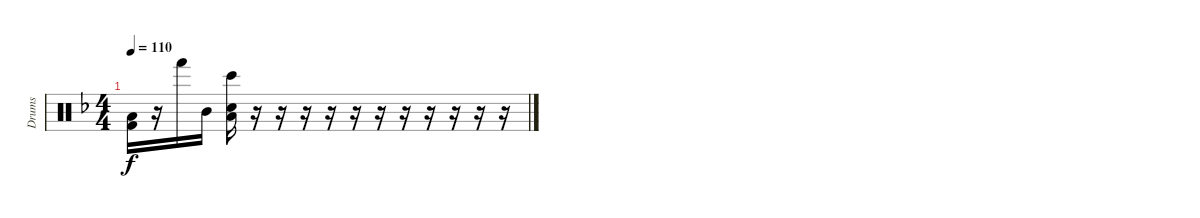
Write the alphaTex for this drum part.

\track ("Drums" "Drums") {instrument percussion}
\staff {score}
\articulation defaults
\ts (4 4)
\tempo 110
\clef neutral
\ks dminor
("Low Floor Tom (hit)" "Kick (hit) 2").16{dy f} r.16 "Hand (hit)".16 "Mid Tom (hit)".16 ("Bongo High (hit)" "Snare (hit) 2" "Low Tom (hit)").16 r.16 r.16 r.16 r.16 r.16 r.16 r.16 r.16 r.16 r.16 r.16
